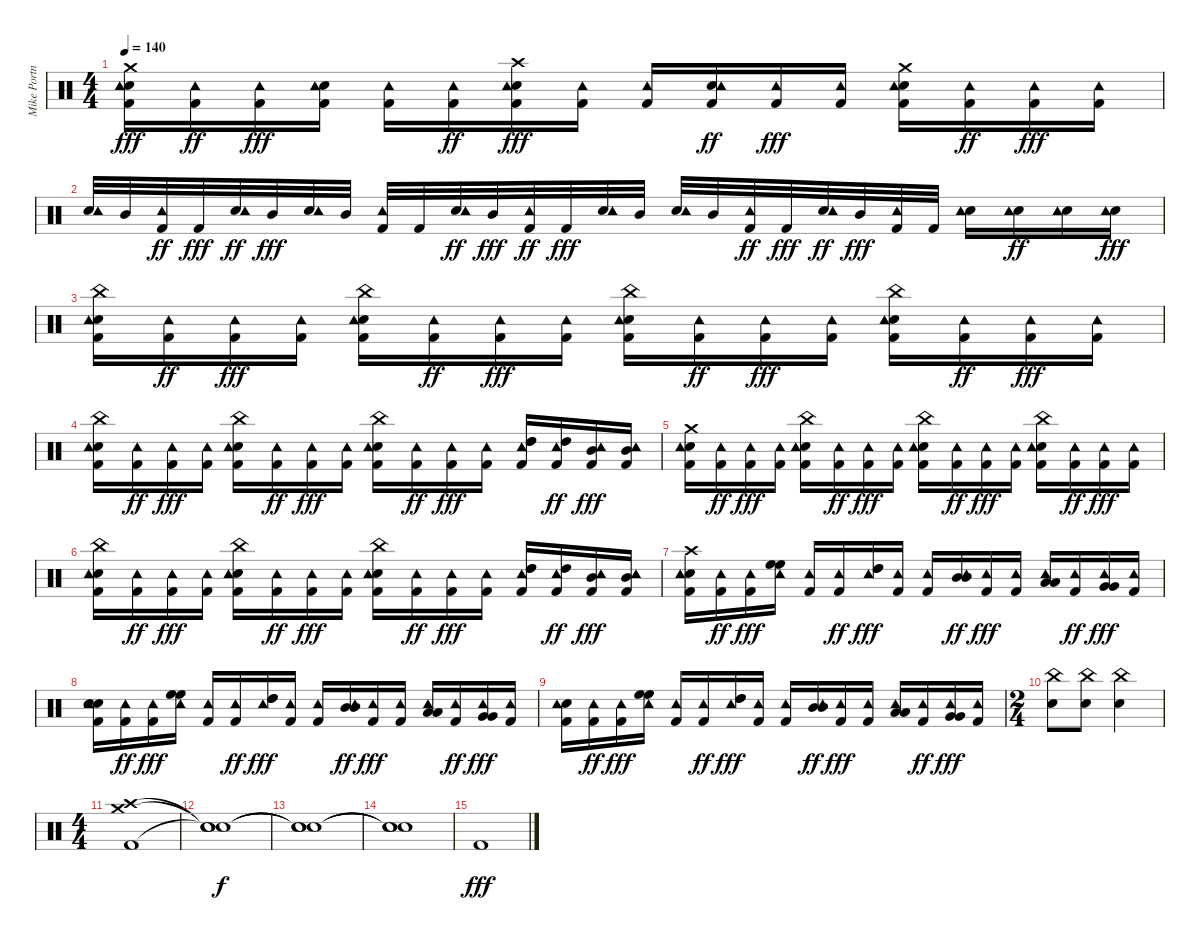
\track ("Mike Portnoy" "Mike Portn") {instrument percussion}
\staff {score}
\articulation defaults
\ts (4 4)
\tempo 140
\clef neutral
\ks c
("Crash medium (hit)" "Snare (hit) 2" "Kick (hit) 2" "Tambourine (hit)").16{dy fff} ("Kick (hit) 2" "Tambourine (hit)").16{dy ff} ("Kick (hit) 2" "Tambourine (hit)").16{dy fff} ("Snare (hit) 2" "Kick (hit) 2" "Tambourine (hit)").16 ("Kick (hit) 2" "Tambourine (hit)").16 ("Kick (hit) 2" "Tambourine (hit)").16{dy ff} ("Crash high (hit)" "Snare (hit) 2" "Kick (hit) 2" "Tambourine (hit)").16{dy fff} ("Kick (hit) 2" "Tambourine (hit)").16 ("Kick (hit) 2" "Tambourine (hit)").16 ("Snare (hit) 2" "Kick (hit) 2" "Tambourine (hit)").16{dy ff} ("Kick (hit) 2" "Tambourine (hit)").16{dy fff} ("Kick (hit) 2" "Tambourine (hit)").16 ("Crash medium (hit)" "Snare (hit) 2" "Kick (hit) 2" "Tambourine (hit)").16 ("Kick (hit) 2" "Tambourine (hit)").16{dy ff} ("Kick (hit) 2" "Tambourine (hit)").16{dy fff} ("Kick (hit) 2" "Tambourine (hit)").16 |
("Snare (hit) 2" "Tambourine (hit)").32 "Mid Tom (hit)".32 ("Kick (hit) 2" "Tambourine (hit)").32{dy ff} "Kick (hit) 2".32{dy fff} ("Snare (hit) 2" "Tambourine (hit)").32{dy ff} "Mid Tom (hit)".32{dy fff} ("Snare (hit) 2" "Tambourine (hit)").32 "Mid Tom (hit)".32 ("Kick (hit) 2" "Tambourine (hit)").32 "Kick (hit) 2".32 ("Snare (hit) 2" "Tambourine (hit)").32{dy ff} "Mid Tom (hit)".32{dy fff} ("Kick (hit) 2" "Tambourine (hit)").32{dy ff} "Kick (hit) 2".32{dy fff} ("Snare (hit) 2" "Tambourine (hit)").32 "Mid Tom (hit)".32 ("Snare (hit) 2" "Tambourine (hit)").32 "Mid Tom (hit)".32 ("Kick (hit) 2" "Tambourine (hit)").32{dy ff} "Kick (hit) 2".32{dy fff} ("Snare (hit) 2" "Tambourine (hit)").32{dy ff} "Mid Tom (hit)".32{dy fff} ("Kick (hit) 2" "Tambourine (hit)").32 "Kick (hit) 2".32 ("Snare (hit) 2" "Tambourine (hit)").16 ("Snare (hit) 2" "Tambourine (hit)").16{dy ff} ("Snare (hit) 2" "Tambourine (hit)").16 ("Snare (hit) 2" "Tambourine (hit)").16{dy fff} |
("China (hit)" "Snare (hit) 2" "Kick (hit) 2" "Tambourine (hit)").16 ("Kick (hit) 2" "Tambourine (hit)").16{dy ff} ("Kick (hit) 2" "Tambourine (hit)").16{dy fff} ("Kick (hit) 2" "Tambourine (hit)").16 ("China (hit)" "Snare (hit) 2" "Kick (hit) 2" "Tambourine (hit)").16 ("Kick (hit) 2" "Tambourine (hit)").16{dy ff} ("Kick (hit) 2" "Tambourine (hit)").16{dy fff} ("Kick (hit) 2" "Tambourine (hit)").16 ("China (hit)" "Snare (hit) 2" "Kick (hit) 2" "Tambourine (hit)").16 ("Kick (hit) 2" "Tambourine (hit)").16{dy ff} ("Kick (hit) 2" "Tambourine (hit)").16{dy fff} ("Kick (hit) 2" "Tambourine (hit)").16 ("China (hit)" "Snare (hit) 2" "Kick (hit) 2" "Tambourine (hit)").16 ("Kick (hit) 2" "Tambourine (hit)").16{dy ff} ("Kick (hit) 2" "Tambourine (hit)").16{dy fff} ("Kick (hit) 2" "Tambourine (hit)").16 |
("China (hit)" "Snare (hit) 2" "Kick (hit) 2" "Tambourine (hit)").16 ("Kick (hit) 2" "Tambourine (hit)").16{dy ff} ("Kick (hit) 2" "Tambourine (hit)").16{dy fff} ("Kick (hit) 2" "Tambourine (hit)").16 ("China (hit)" "Snare (hit) 2" "Kick (hit) 2" "Tambourine (hit)").16 ("Kick (hit) 2" "Tambourine (hit)").16{dy ff} ("Kick (hit) 2" "Tambourine (hit)").16{dy fff} ("Kick (hit) 2" "Tambourine (hit)").16 ("China (hit)" "Snare (hit) 2" "Kick (hit) 2" "Tambourine (hit)").16 ("Kick (hit) 2" "Tambourine (hit)").16{dy ff} ("Kick (hit) 2" "Tambourine (hit)").16{dy fff} ("Kick (hit) 2" "Tambourine (hit)").16 ("High Tom (hit)" "High Tom (hit)" "Kick (hit) 2" "Tambourine (hit)").16 ("High Tom (hit)" "Kick (hit) 2" "Tambourine (hit)").16{dy ff} ("Mid Tom (hit)" "Kick (hit) 2" "Tambourine (hit)").16{dy fff} ("Mid Tom (hit)" "Kick (hit) 2" "Tambourine (hit)").16 |
("Crash medium (hit)" "Snare (hit) 2" "Kick (hit) 2" "Tambourine (hit)").16 ("Kick (hit) 2" "Tambourine (hit)").16{dy ff} ("Kick (hit) 2" "Tambourine (hit)").16{dy fff} ("Kick (hit) 2" "Tambourine (hit)").16 ("China (hit)" "Snare (hit) 2" "Kick (hit) 2" "Tambourine (hit)").16 ("Kick (hit) 2" "Tambourine (hit)").16{dy ff} ("Kick (hit) 2" "Tambourine (hit)").16{dy fff} ("Kick (hit) 2" "Tambourine (hit)").16 ("China (hit)" "Snare (hit) 2" "Kick (hit) 2" "Tambourine (hit)").16 ("Kick (hit) 2" "Tambourine (hit)").16{dy ff} ("Kick (hit) 2" "Tambourine (hit)").16{dy fff} ("Kick (hit) 2" "Tambourine (hit)").16 ("China (hit)" "Snare (hit) 2" "Kick (hit) 2" "Tambourine (hit)").16 ("Kick (hit) 2" "Tambourine (hit)").16{dy ff} ("Kick (hit) 2" "Tambourine (hit)").16{dy fff} ("Kick (hit) 2" "Tambourine (hit)").16 |
("China (hit)" "Snare (hit) 2" "Kick (hit) 2" "Tambourine (hit)").16 ("Kick (hit) 2" "Tambourine (hit)").16{dy ff} ("Kick (hit) 2" "Tambourine (hit)").16{dy fff} ("Kick (hit) 2" "Tambourine (hit)").16 ("China (hit)" "Snare (hit) 2" "Kick (hit) 2" "Tambourine (hit)").16 ("Kick (hit) 2" "Tambourine (hit)").16{dy ff} ("Kick (hit) 2" "Tambourine (hit)").16{dy fff} ("Kick (hit) 2" "Tambourine (hit)").16 ("China (hit)" "Snare (hit) 2" "Kick (hit) 2" "Tambourine (hit)").16 ("Kick (hit) 2" "Tambourine (hit)").16{dy ff} ("Kick (hit) 2" "Tambourine (hit)").16{dy fff} ("Kick (hit) 2" "Tambourine (hit)").16 ("High Tom (hit)" "High Tom (hit)" "Kick (hit) 2" "Tambourine (hit)").16 ("High Tom (hit)" "Kick (hit) 2" "Tambourine (hit)").16{dy ff} ("Mid Tom (hit)" "Kick (hit) 2" "Tambourine (hit)").16{dy fff} ("Mid Tom (hit)" "Kick (hit) 2" "Tambourine (hit)").16 |
("Crash high (hit)" "Snare (hit) 2" "Kick (hit) 2" "Tambourine (hit)").16 ("Kick (hit) 2" "Tambourine (hit)").16{dy ff} ("Kick (hit) 2" "Tambourine (hit)").16{dy fff} ("High Floor Tom (hit)" "High Floor Tom (hit)" "Tambourine (hit)").16 ("Kick (hit) 2" "Tambourine (hit)").16 ("Kick (hit) 2" "Tambourine (hit)").16{dy ff} ("High Tom (hit)" "High Tom (hit)" "Tambourine (hit)").16{dy fff} ("Kick (hit) 2" "Tambourine (hit)").16 ("Kick (hit) 2" "Tambourine (hit)").16 ("Mid Tom (hit)" "Mid Tom (hit)" "Tambourine (hit)").16{dy ff} ("Kick (hit) 2" "Tambourine (hit)").16{dy fff} ("Kick (hit) 2" "Tambourine (hit)").16 ("Low Tom (hit)" "Low Tom (hit)" "Tambourine (hit)").16 ("Kick (hit) 2" "Tambourine (hit)").16{dy ff} ("Very Low Tom (hit)" "Very Low Tom (hit)" "Tambourine (hit)").16{dy fff} ("Kick (hit) 2" "Tambourine (hit)").16 |
("Snare (hit) 2" "Snare (hit) 2" "Kick (hit) 2" "Tambourine (hit)").16 ("Kick (hit) 2" "Tambourine (hit)").16{dy ff} ("Kick (hit) 2" "Tambourine (hit)").16{dy fff} ("High Floor Tom (hit)" "High Floor Tom (hit)" "Tambourine (hit)").16 ("Kick (hit) 2" "Tambourine (hit)").16 ("Kick (hit) 2" "Tambourine (hit)").16{dy ff} ("High Tom (hit)" "High Tom (hit)" "Tambourine (hit)").16{dy fff} ("Kick (hit) 2" "Tambourine (hit)").16 ("Kick (hit) 2" "Tambourine (hit)").16 ("Mid Tom (hit)" "Mid Tom (hit)" "Tambourine (hit)").16{dy ff} ("Kick (hit) 2" "Tambourine (hit)").16{dy fff} ("Kick (hit) 2" "Tambourine (hit)").16 ("Low Tom (hit)" "Low Tom (hit)" "Tambourine (hit)").16 ("Kick (hit) 2" "Tambourine (hit)").16{dy ff} ("Very Low Tom (hit)" "Very Low Tom (hit)" "Tambourine (hit)").16{dy fff} ("Kick (hit) 2" "Tambourine (hit)").16 |
("Snare (hit) 2" "Kick (hit) 2" "Tambourine (hit)").16 ("Kick (hit) 2" "Tambourine (hit)").16{dy ff} ("Kick (hit) 2" "Tambourine (hit)").16{dy fff} ("High Floor Tom (hit)" "High Floor Tom (hit)" "Tambourine (hit)").16 ("Kick (hit) 2" "Tambourine (hit)").16 ("Kick (hit) 2" "Tambourine (hit)").16{dy ff} ("High Tom (hit)" "High Tom (hit)" "Tambourine (hit)").16{dy fff} ("Kick (hit) 2" "Tambourine (hit)").16 ("Kick (hit) 2" "Tambourine (hit)").16 ("Mid Tom (hit)" "Mid Tom (hit)" "Tambourine (hit)").16{dy ff} ("Kick (hit) 2" "Tambourine (hit)").16{dy fff} ("Kick (hit) 2" "Tambourine (hit)").16 ("Low Tom (hit)" "Low Tom (hit)" "Tambourine (hit)").16 ("Kick (hit) 2" "Tambourine (hit)").16{dy ff} ("Very Low Tom (hit)" "Very Low Tom (hit)" "Tambourine (hit)").16{dy fff} ("Kick (hit) 2" "Tambourine (hit)").16 |
\ts (2 4)
("China (hit)" "Snare (hit) 2").8 ("China (hit)" "Snare (hit) 2").8 ("China (hit)" "Snare (hit) 2").4 |
\ts (4 4)
("Crash high (hit)" "Crash medium (hit)" "Kick (hit) 2").1 |
("Snare (hit)"{t} "Snare (hit)"{t} "Snare (hit)"{t}).1{dy f} |
("Snare (hit)"{t} "Snare (hit)"{t} "Snare (hit)"{t}).1 |
("Snare (hit)"{t} "Snare (hit)"{t} "Snare (hit)"{t}).1 |
"Kick (hit) 2".1{dy fff}
